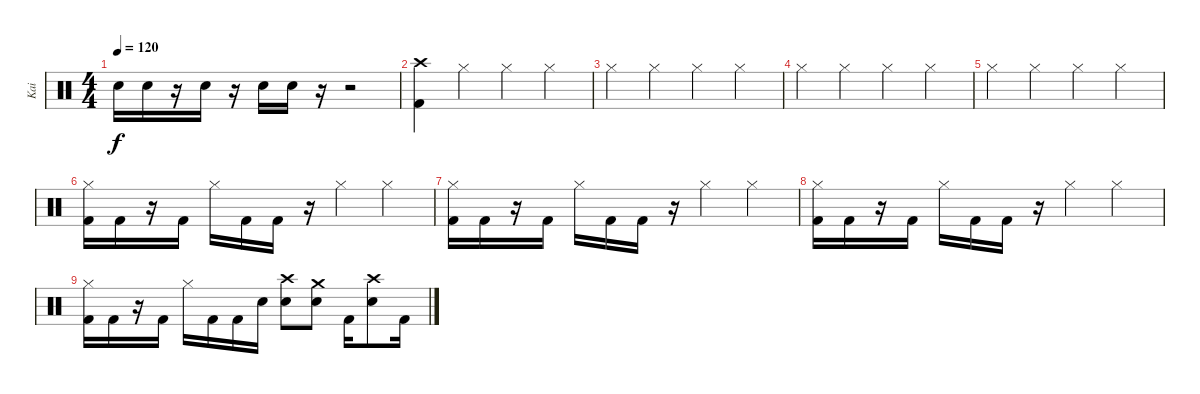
\track ("Kai" "Kai") {instrument percussion}
\staff {score}
\articulation defaults
\ts (4 4)
\tempo 120
\clef neutral
\ks c "Electric Snare (hit)".16{dy f} "Electric Snare (hit)".16
r.16 "Electric Snare (hit)".16 r.16 "Electric Snare (hit)".16 "Electric Snare (hit)".16 r.16 r.2 |
("Crash high (hit)" "Kick (hit) 2").4 "Hi-Hat (closed)".4 "Hi-Hat (closed)".4 "Hi-Hat (closed)".4 |
"Hi-Hat (closed)".4 "Hi-Hat (closed)".4 "Hi-Hat (closed)".4 "Hi-Hat (closed)".4 |
"Hi-Hat (closed)".4 "Hi-Hat (closed)".4 "Hi-Hat (closed)".4 "Hi-Hat (closed)".4 |
"Hi-Hat (closed)".4 "Hi-Hat (closed)".4 "Hi-Hat (closed)".4 "Hi-Hat (closed)".4 |
("Hi-Hat (closed)" "Kick (hit) 2").16 "Kick (hit) 2".16 r.16 "Kick (hit) 2".16 "Hi-Hat (closed)".16 "Kick (hit) 2".16 "Kick (hit) 2".16 r.16 "Hi-Hat (closed)".4 "Hi-Hat (closed)".4 |
("Hi-Hat (closed)" "Kick (hit) 2").16 "Kick (hit) 2".16 r.16 "Kick (hit) 2".16 "Hi-Hat (closed)".16 "Kick (hit) 2".16 "Kick (hit) 2".16 r.16 "Hi-Hat (closed)".4 "Hi-Hat (closed)".4 |
("Hi-Hat (closed)" "Kick (hit) 2").16 "Kick (hit) 2".16 r.16 "Kick (hit) 2".16 "Hi-Hat (closed)".16 "Kick (hit) 2".16 "Kick (hit) 2".16 r.16 "Hi-Hat (closed)".4 "Hi-Hat (closed)".4 |
("Hi-Hat (closed)" "Kick (hit) 2").16 "Kick (hit) 2".16 r.16 "Kick (hit) 2".16 "Hi-Hat (closed)".16 "Kick (hit) 2".16 "Kick (hit) 2".16 "Electric Snare (hit)".16 ("Crash high (hit)" "Electric Snare (hit)").8 ("Crash medium (hit)" "Electric Snare (hit)").8 "Kick (hit) 2".16 ("Crash high (hit)" "Electric Snare (hit)").8 "Kick (hit) 2".16
